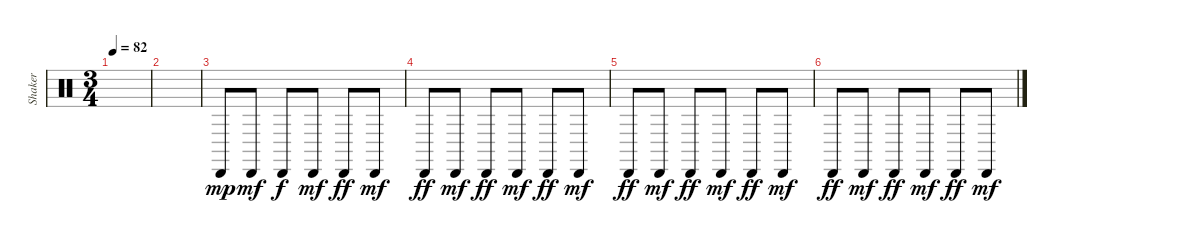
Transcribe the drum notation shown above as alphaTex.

\track ("Shaker" "Shaker") {instrument percussion}
\staff {score}
\articulation defaults
\ts (3 4)
\tempo 82
\clef neutral
\ks c
|
|
"Cabasa (hit)".8{dy mp} "Cabasa (hit)".8{dy mf} "Cabasa (hit)".8{dy f} "Cabasa (hit)".8{dy mf} "Cabasa (hit)".8{dy ff} "Cabasa (hit)".8{dy mf} |
"Cabasa (hit)".8{dy ff} "Cabasa (hit)".8{dy mf} "Cabasa (hit)".8{dy ff} "Cabasa (hit)".8{dy mf} "Cabasa (hit)".8{dy ff} "Cabasa (hit)".8{dy mf} |
"Cabasa (hit)".8{dy ff} "Cabasa (hit)".8{dy mf} "Cabasa (hit)".8{dy ff} "Cabasa (hit)".8{dy mf} "Cabasa (hit)".8{dy ff} "Cabasa (hit)".8{dy mf} |
"Cabasa (hit)".8{dy ff} "Cabasa (hit)".8{dy mf} "Cabasa (hit)".8{dy ff} "Cabasa (hit)".8{dy mf} "Cabasa (hit)".8{dy ff} "Cabasa (hit)".8{dy mf}
